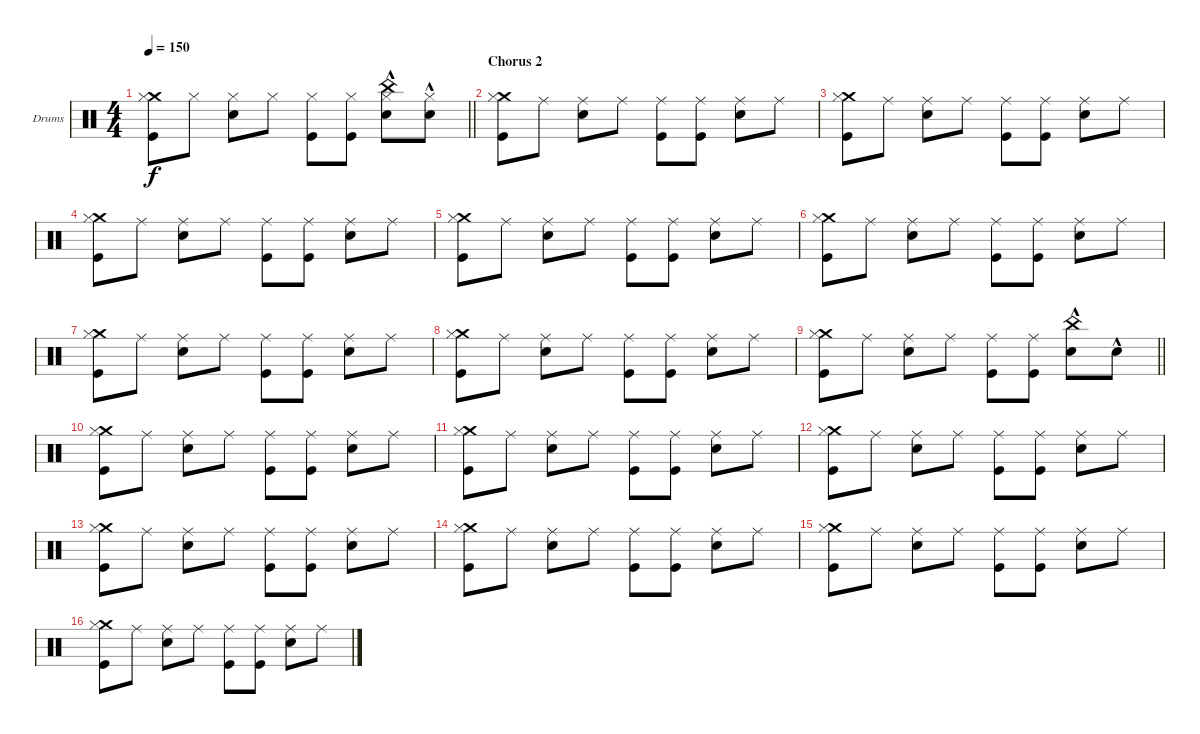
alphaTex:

\bracketExtendMode groupsimilarinstruments
\firstSystemTrackNameOrientation horizontal
\otherSystemsTrackNameOrientation horizontal
\track ("Drumkit" "Drums") {instrument percussion}
\staff {score}
\articulation defaults
\ts (4 4)
\tempo 150
\clef neutral
\barLineRight lightlight
\ks c
("Crash medium (hit)" "Kick (hit)" "Hi-Hat (closed)").8{dy f} "Hi-Hat (closed)".8 ("Snare (hit) 2" "Hi-Hat (closed)").8 "Hi-Hat (closed)".8 ("Kick (hit)" "Hi-Hat (closed)").8 ("Kick (hit)" "Hi-Hat (closed)").8 ("China (hit)" "Snare (hit) 2"{hac} "Hi-Hat (closed)").8 ("Snare (hit) 2"{hac} "Hi-Hat (closed)").8 |
\section ("" "Chorus 2")
("Crash medium (hit)" "Kick (hit)" "Hi-Hat (closed)").8 "Ride (middle)".8 ("Ride (middle)" "Snare (hit) 2").8 "Ride (middle)".8 ("Ride (middle)" "Kick (hit)").8 ("Ride (middle)" "Kick (hit)").8 ("Ride (middle)" "Snare (hit) 2").8 "Ride (middle)".8 |
("Crash medium (hit)" "Kick (hit)" "Hi-Hat (closed)").8 "Ride (middle)".8 ("Ride (middle)" "Snare (hit) 2").8 "Ride (middle)".8 ("Ride (middle)" "Kick (hit)").8 ("Ride (middle)" "Kick (hit)").8 ("Ride (middle)" "Snare (hit) 2").8 "Ride (middle)".8 |
("Crash medium (hit)" "Kick (hit)" "Hi-Hat (closed)").8 "Ride (middle)".8 ("Ride (middle)" "Snare (hit) 2").8 "Ride (middle)".8 ("Ride (middle)" "Kick (hit)").8 ("Ride (middle)" "Kick (hit)").8 ("Ride (middle)" "Snare (hit) 2").8 "Ride (middle)".8 |
("Crash medium (hit)" "Kick (hit)" "Hi-Hat (closed)").8 "Ride (middle)".8 ("Ride (middle)" "Snare (hit) 2").8 "Ride (middle)".8 ("Ride (middle)" "Kick (hit)").8 ("Ride (middle)" "Kick (hit)").8 ("Ride (middle)" "Snare (hit) 2").8 "Ride (middle)".8 |
("Crash medium (hit)" "Kick (hit)" "Hi-Hat (closed)").8 "Ride (middle)".8 ("Ride (middle)" "Snare (hit) 2").8 "Ride (middle)".8 ("Ride (middle)" "Kick (hit)").8 ("Ride (middle)" "Kick (hit)").8 ("Ride (middle)" "Snare (hit) 2").8 "Ride (middle)".8 |
("Crash medium (hit)" "Kick (hit)" "Hi-Hat (closed)").8 "Ride (middle)".8 ("Ride (middle)" "Snare (hit) 2").8 "Ride (middle)".8 ("Ride (middle)" "Kick (hit)").8 ("Ride (middle)" "Kick (hit)").8 ("Ride (middle)" "Snare (hit) 2").8 "Ride (middle)".8 |
("Crash medium (hit)" "Kick (hit)" "Hi-Hat (closed)").8 "Ride (middle)".8 ("Ride (middle)" "Snare (hit) 2").8 "Ride (middle)".8 ("Ride (middle)" "Kick (hit)").8 ("Ride (middle)" "Kick (hit)").8 ("Ride (middle)" "Snare (hit) 2").8 "Ride (middle)".8 |
\barLineRight lightlight
("Crash medium (hit)" "Kick (hit)" "Hi-Hat (closed)").8 "Ride (middle)".8 ("Ride (middle)" "Snare (hit) 2").8 "Ride (middle)".8 ("Ride (middle)" "Kick (hit)").8 ("Ride (middle)" "Kick (hit)").8 ("Snare (hit) 2"{hac} "China (hit)").8 "Snare (hit) 2"{hac}.8 |
("Crash medium (hit)" "Kick (hit)" "Hi-Hat (closed)").8 "Ride (middle)".8 ("Ride (middle)" "Snare (hit) 2").8 "Ride (middle)".8 ("Ride (middle)" "Kick (hit)").8 ("Ride (middle)" "Kick (hit)").8 ("Ride (middle)" "Snare (hit) 2").8 "Ride (middle)".8 |
("Crash medium (hit)" "Kick (hit)" "Hi-Hat (closed)").8 "Ride (middle)".8 ("Ride (middle)" "Snare (hit) 2").8 "Ride (middle)".8 ("Ride (middle)" "Kick (hit)").8 ("Ride (middle)" "Kick (hit)").8 ("Ride (middle)" "Snare (hit) 2").8 "Ride (middle)".8 |
("Crash medium (hit)" "Kick (hit)" "Hi-Hat (closed)").8 "Ride (middle)".8 ("Ride (middle)" "Snare (hit) 2").8 "Ride (middle)".8 ("Ride (middle)" "Kick (hit)").8 ("Ride (middle)" "Kick (hit)").8 ("Ride (middle)" "Snare (hit) 2").8 "Ride (middle)".8 |
("Crash medium (hit)" "Kick (hit)" "Hi-Hat (closed)").8 "Ride (middle)".8 ("Ride (middle)" "Snare (hit) 2").8 "Ride (middle)".8 ("Ride (middle)" "Kick (hit)").8 ("Ride (middle)" "Kick (hit)").8 ("Ride (middle)" "Snare (hit) 2").8 "Ride (middle)".8 |
("Crash medium (hit)" "Kick (hit)" "Hi-Hat (closed)").8 "Ride (middle)".8 ("Ride (middle)" "Snare (hit) 2").8 "Ride (middle)".8 ("Ride (middle)" "Kick (hit)").8 ("Ride (middle)" "Kick (hit)").8 ("Ride (middle)" "Snare (hit) 2").8 "Ride (middle)".8 |
("Crash medium (hit)" "Kick (hit)" "Hi-Hat (closed)").8 "Ride (middle)".8 ("Ride (middle)" "Snare (hit) 2").8 "Ride (middle)".8 ("Ride (middle)" "Kick (hit)").8 ("Ride (middle)" "Kick (hit)").8 ("Ride (middle)" "Snare (hit) 2").8 "Ride (middle)".8 |
("Crash medium (hit)" "Kick (hit)" "Hi-Hat (closed)").8 "Ride (middle)".8 ("Ride (middle)" "Snare (hit) 2").8 "Ride (middle)".8 ("Ride (middle)" "Kick (hit)").8 ("Ride (middle)" "Kick (hit)").8 ("Ride (middle)" "Snare (hit) 2").8 "Ride (middle)".8
